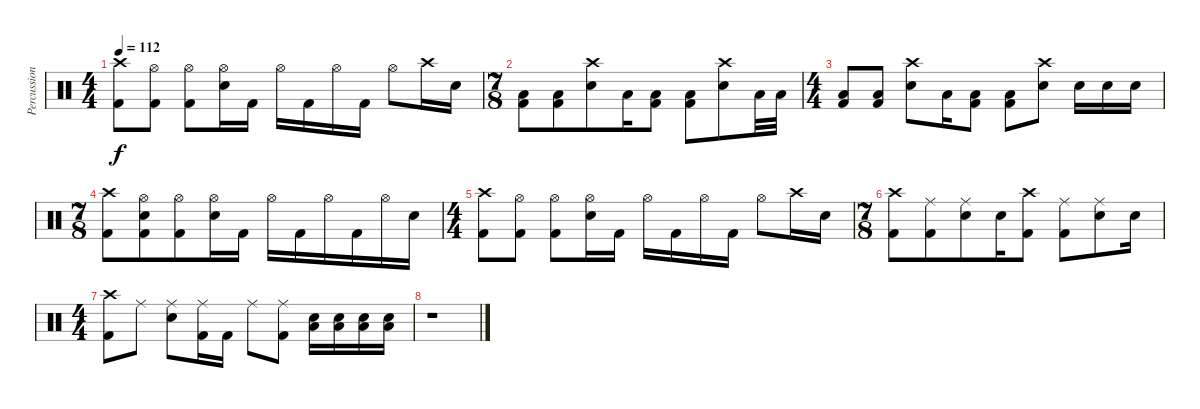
\track ("Percussion" "Percussion") {instrument percussion}
\staff {score}
\articulation defaults
\ts (4 4)
\tempo 112
\clef neutral
\ks c
("Crash high (hit)" "Kick (hit) 2").8{dy f} ("Hi-Hat (open)" "Kick (hit) 2").8 ("Hi-Hat (open)" "Kick (hit) 2").8 ("Hi-Hat (open)" "Snare (hit) 2").16 "Kick (hit) 2".16 "Hi-Hat (open)".16 "Kick (hit) 2".16 "Hi-Hat (open)".16 "Kick (hit) 2".16 "Hi-Hat (open)".8 "Crash high (hit)".16 "Snare (hit) 2".16 |
\ts (7 8)
("Low Floor Tom (hit)" "Kick (hit) 2").8 ("Low Floor Tom (hit)" "Kick (hit) 2").8 ("Crash high (hit)" "Snare (hit) 2").8 "Low Tom (hit)".16 ("Low Floor Tom (hit)" "Kick (hit) 2").8 ("Low Floor Tom (hit)" "Kick (hit) 2").8 ("Crash high (hit)" "Snare (hit) 2").8 "Low Tom (hit)".32 "Low Tom (hit)".32 |
\ts (4 4)
("Low Floor Tom (hit)" "Kick (hit) 2").8 ("Low Floor Tom (hit)" "Kick (hit) 2").8 ("Crash high (hit)" "Snare (hit) 2").8 "Low Tom (hit)".16 ("Low Floor Tom (hit)" "Kick (hit) 2").8 ("Low Floor Tom (hit)" "Kick (hit) 2").8 ("Crash high (hit)" "Snare (hit) 2").8 "Snare (hit) 2".16 "Snare (hit) 2".16 "Snare (hit) 2".16 |
\ts (7 8)
("Crash high (hit)" "Kick (hit) 2").8 ("Hi-Hat (open)" "Snare (hit) 2" "Kick (hit) 2").8 ("Hi-Hat (open)" "Kick (hit) 2").8 ("Hi-Hat (open)" "Snare (hit) 2").16 "Kick (hit) 2".16 "Hi-Hat (open)".16 "Kick (hit) 2".16 "Hi-Hat (open)".16 "Kick (hit) 2".16 "Hi-Hat (open)".16 "Snare (hit) 2".16 |
\ts (4 4)
("Crash high (hit)" "Kick (hit) 2").8 ("Hi-Hat (open)" "Kick (hit) 2").8 ("Hi-Hat (open)" "Kick (hit) 2").8 ("Hi-Hat (open)" "Snare (hit) 2").16 "Kick (hit) 2".16 "Hi-Hat (open)".16 "Kick (hit) 2".16 "Hi-Hat (open)".16 "Kick (hit) 2".16 "Hi-Hat (open)".8 "Crash high (hit)".16 "Snare (hit) 2".16 |
\ts (7 8)
("Crash high (hit)" "Kick (hit) 2").8 ("Ride (middle)" "Kick (hit) 2").8 ("Ride (middle)" "Snare (hit) 2").8 "Snare (hit) 2".16 ("Crash high (hit)" "Kick (hit) 2").8 ("Ride (middle)" "Kick (hit) 2").8 ("Ride (middle)" "Snare (hit) 2").8 "Snare (hit) 2".16 |
\ts (4 4)
("Crash high (hit)" "Kick (hit) 2").8 "Ride (middle)".8 ("Ride (middle)" "Snare (hit) 2").8 ("Ride (middle)" "Kick (hit) 2").16 "Kick (hit) 2".16 "Ride (middle)".8 ("Ride (middle)" "Kick (hit) 2").8 ("Snare (hit) 2" "Low Tom (hit)").16 ("Snare (hit) 2" "Low Tom (hit)").16 ("Snare (hit) 2" "Low Tom (hit)").16 ("Snare (hit) 2" "Low Tom (hit)").16 |
r.1
